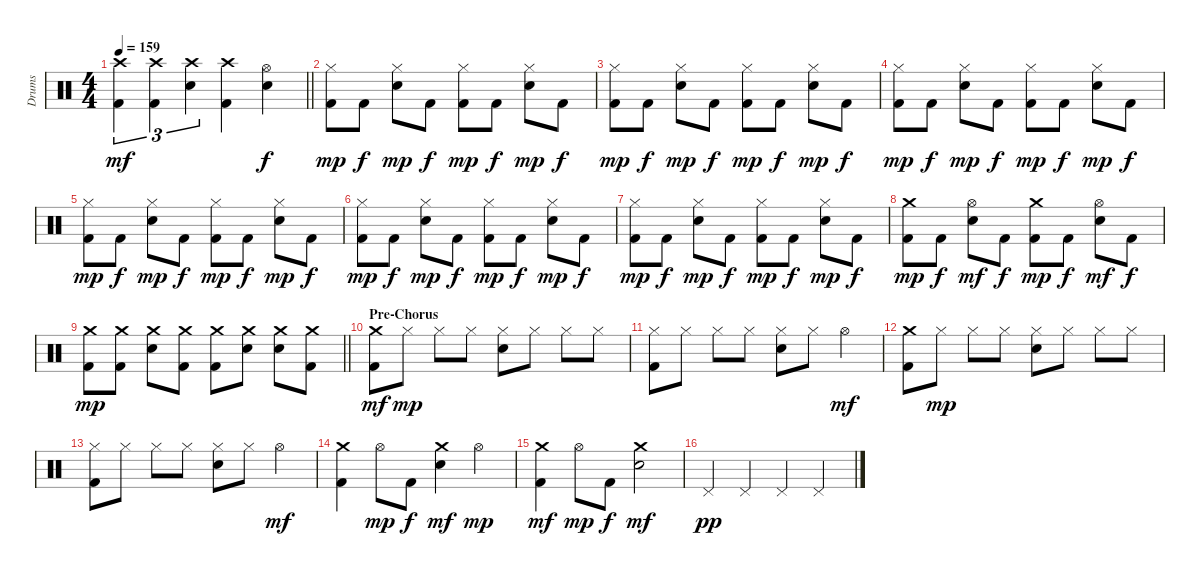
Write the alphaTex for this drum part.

\track ("Drums" "Drums") {instrument percussion}
\staff {score}
\articulation defaults
\ts (4 4)
\tempo 159
\clef neutral
\barLineRight lightlight
\ks c
("Crash high (hit)" "Kick (hit) 2").4{tu (3 2) dy mf} ("Crash high (hit)" "Kick (hit) 2").4{tu (3 2)} ("Crash high (hit)" "Electric Snare (hit)").4{tu (3 2)} ("Crash high (hit)" "Kick (hit) 2").4 ("Hi-Hat (open)" "Electric Snare (hit)").4{dy f} |
("Hi-Hat (closed)" "Kick (hit) 2").8{dy mp} "Kick (hit) 2".8{dy f} ("Hi-Hat (closed)" "Electric Snare (hit)").8{dy mp} "Kick (hit) 2".8{dy f} ("Hi-Hat (closed)" "Kick (hit) 2").8{dy mp} "Kick (hit) 2".8{dy f} ("Hi-Hat (closed)" "Electric Snare (hit)").8{dy mp} "Kick (hit) 2".8{dy f} |
("Hi-Hat (closed)" "Kick (hit) 2").8{dy mp} "Kick (hit) 2".8{dy f} ("Hi-Hat (closed)" "Electric Snare (hit)").8{dy mp} "Kick (hit) 2".8{dy f} ("Hi-Hat (closed)" "Kick (hit) 2").8{dy mp} "Kick (hit) 2".8{dy f} ("Hi-Hat (closed)" "Electric Snare (hit)").8{dy mp} "Kick (hit) 2".8{dy f} |
("Hi-Hat (closed)" "Kick (hit) 2").8{dy mp} "Kick (hit) 2".8{dy f} ("Hi-Hat (closed)" "Electric Snare (hit)").8{dy mp} "Kick (hit) 2".8{dy f} ("Hi-Hat (closed)" "Kick (hit) 2").8{dy mp} "Kick (hit) 2".8{dy f} ("Hi-Hat (closed)" "Electric Snare (hit)").8{dy mp} "Kick (hit) 2".8{dy f} |
("Hi-Hat (closed)" "Kick (hit) 2").8{dy mp} "Kick (hit) 2".8{dy f} ("Hi-Hat (closed)" "Electric Snare (hit)").8{dy mp} "Kick (hit) 2".8{dy f} ("Hi-Hat (closed)" "Kick (hit) 2").8{dy mp} "Kick (hit) 2".8{dy f} ("Hi-Hat (closed)" "Electric Snare (hit)").8{dy mp} "Kick (hit) 2".8{dy f} |
("Hi-Hat (closed)" "Kick (hit) 2").8{dy mp} "Kick (hit) 2".8{dy f} ("Hi-Hat (closed)" "Electric Snare (hit)").8{dy mp} "Kick (hit) 2".8{dy f} ("Hi-Hat (closed)" "Kick (hit) 2").8{dy mp} "Kick (hit) 2".8{dy f} ("Hi-Hat (closed)" "Electric Snare (hit)").8{dy mp} "Kick (hit) 2".8{dy f} |
("Hi-Hat (closed)" "Kick (hit) 2").8{dy mp} "Kick (hit) 2".8{dy f} ("Hi-Hat (closed)" "Electric Snare (hit)").8{dy mp} "Kick (hit) 2".8{dy f} ("Hi-Hat (closed)" "Kick (hit) 2").8{dy mp} "Kick (hit) 2".8{dy f} ("Hi-Hat (closed)" "Electric Snare (hit)").8{dy mp} "Kick (hit) 2".8{dy f} |
("Crash medium (hit)" "Kick (hit) 2").8{dy mp} "Kick (hit) 2".8{dy f} ("Hi-Hat (open)" "Electric Snare (hit)").8{dy mf} "Kick (hit) 2".8{dy f} ("Crash medium (hit)" "Kick (hit) 2").8{dy mp} "Kick (hit) 2".8{dy f} ("Hi-Hat (open)" "Electric Snare (hit)").8{dy mf} "Kick (hit) 2".8{dy f} |
\barLineRight lightlight
("Crash medium (hit)" "Kick (hit) 2").8{dy mp} ("Crash medium (hit)" "Kick (hit) 2").8 ("Crash medium (hit)" "Electric Snare (hit)").8 ("Crash medium (hit)" "Kick (hit) 2").8 ("Crash medium (hit)" "Kick (hit) 2").8 ("Crash medium (hit)" "Electric Snare (hit)").8 ("Crash medium (hit)" "Electric Snare (hit)").8 ("Crash medium (hit)" "Kick (hit) 2").8 |
\section ("" "Pre-Chorus")
("Crash medium (hit)" "Kick (hit) 2").8{dy mf} "Hi-Hat (closed)".8{dy mp} "Hi-Hat (closed)".8 "Hi-Hat (closed)".8 ("Hi-Hat (closed)" "Electric Snare (hit)").8 "Hi-Hat (closed)".8 "Hi-Hat (closed)".8 "Hi-Hat (closed)".8 |
("Hi-Hat (closed)" "Kick (hit) 2").8 "Hi-Hat (closed)".8 "Hi-Hat (closed)".8 "Hi-Hat (closed)".8 ("Hi-Hat (closed)" "Electric Snare (hit)").8 "Hi-Hat (closed)".8 "Hi-Hat (open)".4{dy mf} |
("Crash medium (hit)" "Kick (hit) 2").8 "Hi-Hat (closed)".8{dy mp} "Hi-Hat (closed)".8 "Hi-Hat (closed)".8 ("Hi-Hat (closed)" "Electric Snare (hit)").8 "Hi-Hat (closed)".8 "Hi-Hat (closed)".8 "Hi-Hat (closed)".8 |
("Hi-Hat (closed)" "Kick (hit) 2").8 "Hi-Hat (closed)".8 "Hi-Hat (closed)".8 "Hi-Hat (closed)".8 ("Hi-Hat (closed)" "Electric Snare (hit)").8 "Hi-Hat (closed)".8 "Hi-Hat (open)".4{dy mf} |
("Crash medium (hit)" "Kick (hit) 2").4 "Hi-Hat (open)".8{dy mp} "Kick (hit) 2".8{dy f} ("Crash medium (hit)" "Electric Snare (hit)").4{dy mf} "Hi-Hat (open)".4{dy mp} |
("Crash medium (hit)" "Kick (hit) 2").4{dy mf} "Hi-Hat (open)".8{dy mp} "Kick (hit) 2".8{dy f} ("Crash medium (hit)" "Electric Snare (hit)").2{dy mf} |
"Pedal Hi-Hat (hit)".4{dy pp} "Pedal Hi-Hat (hit)".4 "Pedal Hi-Hat (hit)".4 "Pedal Hi-Hat (hit)".4
